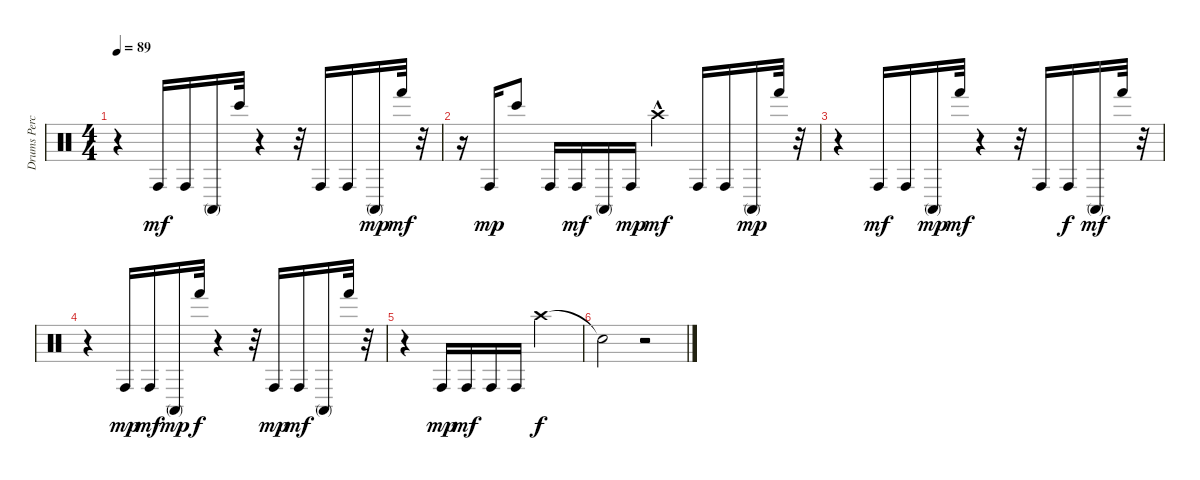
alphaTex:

\track ("Drums Percussion" "Drums Perc") {instrument percussion}
\staff {score}
\articulation defaults
\ts (4 4)
\tempo 89
\clef neutral
\ks c
r.4{dy f} "Conga high (hit)".16{dy mf} "Conga high (hit)".16 "Conga high (mute)".16 "Bongo High (hit)".32 r.4 r.32 "Conga high (hit)".16 "Conga high (hit)".16 "Conga high (mute)".16{dy mp} "Hand (hit)".32{dy mf} r.32 |
r.16 "Conga high (hit)".16{dy mp} "Bongo High (hit)".8 "Conga high (hit)".16 "Conga high (hit)".16{dy mf} "Conga high (mute)".16 "Conga high (hit)".16{dy mp} "Crash high (hit)"{hac}.4{dy mf} "Conga high (hit)".16 "Conga high (hit)".16 "Conga high (mute)".16{dy mp} "Hand (hit)".32 r.32 |
r.4 "Conga high (hit)".16{dy mf} "Conga high (hit)".16 "Conga high (mute)".16{dy mp} "Hand (hit)".32{dy mf} r.4 r.32 "Conga high (hit)".16 "Conga high (hit)".16{dy f} "Conga high (mute)".16{dy mf} "Hand (hit)".32 r.32 |
r.4 "Conga high (hit)".16{dy mp} "Conga high (hit)".16{dy mf} "Conga high (mute)".16{dy mp} "Hand (hit)".32{dy f} r.4 r.32 "Conga high (hit)".16{dy mp} "Conga high (hit)".16{dy mf} "Conga high (mute)".16 "Hand (hit)".32 r.32 |
r.4 "Conga high (hit)".16{dy mp} "Conga high (hit)".16{dy mf} "Conga high (hit)".16 "Conga high (hit)".16 "Crash high (hit)".2{dy f} |
"Snare (hit)"{t}.2 r.2
